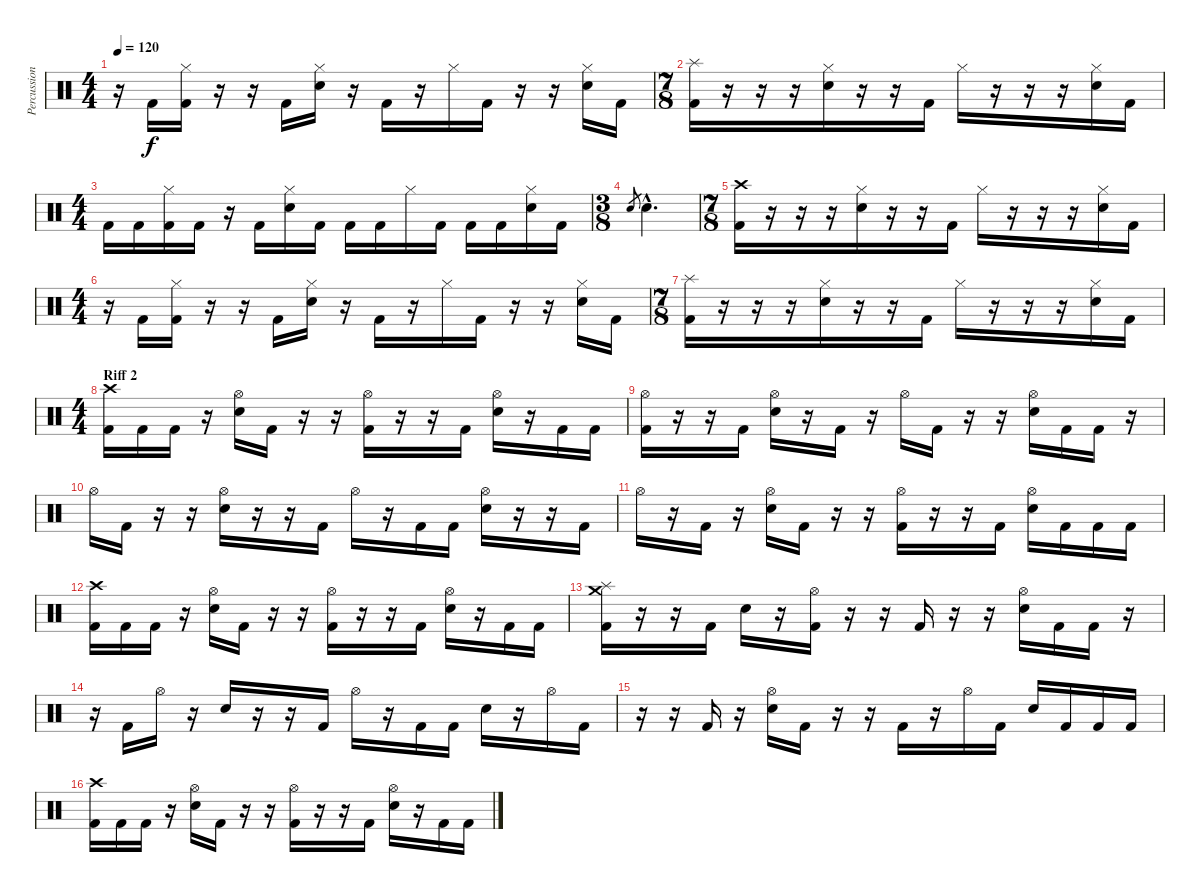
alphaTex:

\track ("Percussion" "Percussion") {instrument percussion}
\staff {score}
\articulation defaults
\ts (4 4)
\tempo 120
\clef neutral
\ks c
r.16{dy f} "Kick (hit) 2".16 ("Hi-Hat (closed)" "Kick (hit) 2").16 r.16 r.16 "Kick (hit) 2".16 ("Hi-Hat (closed)" "Electric Snare (hit)").16 r.16 "Kick (hit) 2".16 r.16 "Hi-Hat (closed)".16 "Kick (hit) 2".16 r.16 r.16 ("Hi-Hat (closed)" "Electric Snare (hit)").16 "Kick (hit) 2".16 |
\ts (7 8)
("Splash (hit)" "Kick (hit) 2").16 r.16 r.16 r.16 ("Hi-Hat (closed)" "Electric Snare (hit)").16 r.16 r.16 "Kick (hit) 2".16 "Hi-Hat (closed)".16 r.16 r.16 r.16 ("Hi-Hat (closed)" "Electric Snare (hit)").16 "Kick (hit) 2".16 |
\ts (4 4)
"Kick (hit) 2".16 "Kick (hit) 2".16 ("Hi-Hat (closed)" "Kick (hit) 2").16 "Kick (hit) 2".16 r.16 "Kick (hit) 2".16 ("Hi-Hat (closed)" "Electric Snare (hit)").16 "Kick (hit) 2".16 "Kick (hit) 2".16 "Kick (hit) 2".16 "Hi-Hat (closed)".16 "Kick (hit) 2".16 "Kick (hit) 2".16 "Kick (hit) 2".16 ("Hi-Hat (closed)" "Electric Snare (hit)").16 "Kick (hit) 2".16 |
\ts (3 8)
"Electric Snare (hit)".8{gr} "Electric Snare (hit)"{hac}.4{d} |
\ts (7 8)
("Crash high (hit)" "Kick (hit) 2").16 r.16 r.16 r.16 ("Hi-Hat (closed)" "Electric Snare (hit)").16 r.16 r.16 "Kick (hit) 2".16 "Hi-Hat (closed)".16 r.16 r.16 r.16 ("Hi-Hat (closed)" "Electric Snare (hit)").16 "Kick (hit) 2".16 |
\ts (4 4)
r.16 "Kick (hit) 2".16 ("Hi-Hat (closed)" "Kick (hit) 2").16 r.16 r.16 "Kick (hit) 2".16 ("Hi-Hat (closed)" "Electric Snare (hit)").16 r.16 "Kick (hit) 2".16 r.16 "Hi-Hat (closed)".16 "Kick (hit) 2".16 r.16 r.16 ("Hi-Hat (closed)" "Electric Snare (hit)").16 "Kick (hit) 2".16 |
\ts (7 8)
("Splash (hit)" "Kick (hit) 2").16 r.16 r.16 r.16 ("Hi-Hat (closed)" "Electric Snare (hit)").16 r.16 r.16 "Kick (hit) 2".16 "Hi-Hat (closed)".16 r.16 r.16 r.16 ("Hi-Hat (closed)" "Electric Snare (hit)").16 "Kick (hit) 2".16 |
\ts (4 4)
\section ("" "Riff 2")
("Crash high (hit)" "Kick (hit) 2").16 "Kick (hit) 2".16 "Kick (hit) 2".16 r.16 ("Hi-Hat (open)" "Electric Snare (hit)").16 "Kick (hit) 2".16 r.16 r.16 ("Hi-Hat (open)" "Kick (hit) 2").16 r.16 r.16 "Kick (hit) 2".16 ("Hi-Hat (open)" "Electric Snare (hit)").16 r.16 "Kick (hit) 2".16 "Kick (hit) 2".16 |
("Hi-Hat (open)" "Kick (hit) 2").16 r.16 r.16 "Kick (hit) 2".16 ("Hi-Hat (open)" "Electric Snare (hit)").16 r.16 "Kick (hit) 2".16 r.16 "Hi-Hat (open)".16 "Kick (hit) 2".16 r.16 r.16 ("Hi-Hat (open)" "Electric Snare (hit)").16 "Kick (hit) 2".16 "Kick (hit) 2".16 r.16 |
"Hi-Hat (open)".16 "Kick (hit) 2".16 r.16 r.16 ("Hi-Hat (open)" "Electric Snare (hit)").16 r.16 r.16 "Kick (hit) 2".16 "Hi-Hat (open)".16 r.16 "Kick (hit) 2".16 "Kick (hit) 2".16 ("Hi-Hat (open)" "Electric Snare (hit)").16 r.16 r.16 "Kick (hit) 2".16 |
"Hi-Hat (open)".16 r.16 "Kick (hit) 2".16 r.16 ("Hi-Hat (open)" "Electric Snare (hit)").16 "Kick (hit) 2".16 r.16 r.16 ("Hi-Hat (open)" "Kick (hit) 2").16 r.16 r.16 "Kick (hit) 2".16 ("Hi-Hat (open)" "Electric Snare (hit)").16 "Kick (hit) 2".16 "Kick (hit) 2".16 "Kick (hit) 2".16 |
("Crash high (hit)" "Kick (hit) 2").16 "Kick (hit) 2".16 "Kick (hit) 2".16 r.16 ("Hi-Hat (open)" "Electric Snare (hit)").16 "Kick (hit) 2".16 r.16 r.16 ("Hi-Hat (open)" "Kick (hit) 2").16 r.16 r.16 "Kick (hit) 2".16 ("Hi-Hat (open)" "Electric Snare (hit)").16 r.16 "Kick (hit) 2".16 "Kick (hit) 2".16 |
("Splash (hit)" "Crash medium (hit)" "Kick (hit) 2").16 r.16 r.16 "Kick (hit) 2".16 "Electric Snare (hit)".16 r.16 ("Hi-Hat (open)" "Kick (hit) 2").16 r.16 r.16 "Kick (hit) 2".16 r.16 r.16 ("Hi-Hat (open)" "Electric Snare (hit)").16 "Kick (hit) 2".16 "Kick (hit) 2".16 r.16 |
r.16 "Kick (hit) 2".16 "Hi-Hat (open)".16 r.16 "Electric Snare (hit)".16 r.16 r.16 "Kick (hit) 2".16 "Hi-Hat (open)".16 r.16 "Kick (hit) 2".16 "Kick (hit) 2".16 "Electric Snare (hit)".16 r.16 "Hi-Hat (open)".16 "Kick (hit) 2".16 |
r.16 r.16 "Kick (hit) 2".16 r.16 ("Hi-Hat (open)" "Electric Snare (hit)").16 "Kick (hit) 2".16 r.16 r.16 "Kick (hit) 2".16 r.16 "Hi-Hat (open)".16 "Kick (hit) 2".16 "Electric Snare (hit)".16 "Kick (hit) 2".16 "Kick (hit) 2".16 "Kick (hit) 2".16 |
("Crash high (hit)" "Kick (hit) 2").16 "Kick (hit) 2".16 "Kick (hit) 2".16 r.16 ("Hi-Hat (open)" "Electric Snare (hit)").16 "Kick (hit) 2".16 r.16 r.16 ("Hi-Hat (open)" "Kick (hit) 2").16 r.16 r.16 "Kick (hit) 2".16 ("Hi-Hat (open)" "Electric Snare (hit)").16 r.16 "Kick (hit) 2".16 "Kick (hit) 2".16
